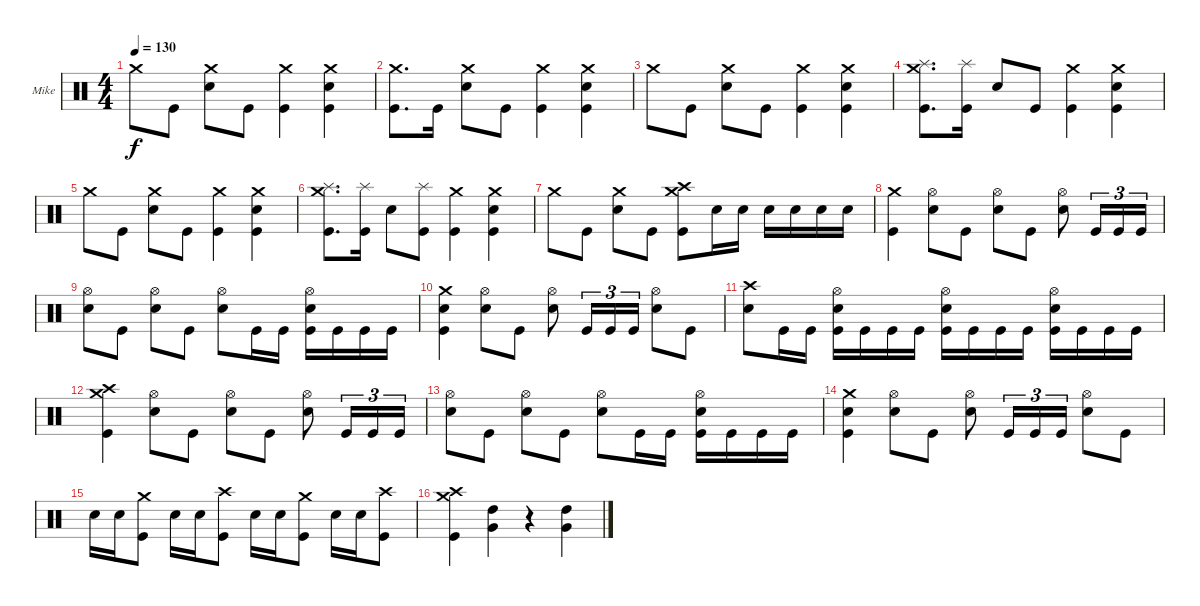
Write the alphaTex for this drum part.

\defaultSystemsLayout 4
\bracketExtendMode groupsimilarinstruments
\firstSystemTrackNameOrientation horizontal
\otherSystemsTrackNameOrientation horizontal
\track ("Mike Portnoy" "Mike") {instrument percussion}
\staff {score}
\articulation defaults
\ts (4 4)
\tempo 130
\clef neutral
\ks c "Crash medium (hit)".8{dy f} "Kick (hit)".8
("Crash medium (hit)" "Snare (hit) 2").8 "Kick (hit)".8 ("Crash medium (hit)" "Kick (hit)").4 ("Crash medium (hit)" "Snare (hit) 2" "Kick (hit)").4 |
("Crash medium (hit)" "Kick (hit)").8{d} "Kick (hit)".16 ("Crash medium (hit)" "Snare (hit) 2").8 "Kick (hit)".8 ("Crash medium (hit)" "Kick (hit)").4 ("Crash medium (hit)" "Snare (hit) 2" "Kick (hit)").4 |
"Crash medium (hit)".8 "Kick (hit)".8 ("Crash medium (hit)" "Snare (hit) 2").8 "Kick (hit)".8 ("Crash medium (hit)" "Kick (hit)").4 ("Crash medium (hit)" "Snare (hit) 2" "Kick (hit)").4 |
("Crash medium (hit)" "Splash (hit)" "Kick (hit)").8{d} ("Splash (hit)" "Kick (hit)").16 "Snare (hit) 2".8 "Kick (hit)".8 ("Crash medium (hit)" "Kick (hit)").4 ("Crash medium (hit)" "Snare (hit) 2" "Kick (hit)").4 |
"Crash medium (hit)".8 "Kick (hit)".8 ("Crash medium (hit)" "Snare (hit) 2").8 "Kick (hit)".8 ("Crash medium (hit)" "Kick (hit)").4 ("Crash medium (hit)" "Snare (hit) 2" "Kick (hit)").4 |
("Crash medium (hit)" "Splash (hit)" "Kick (hit)").8{d} ("Splash (hit)" "Kick (hit)").16 "Snare (hit) 2".8 ("Splash (hit)" "Kick (hit)").8 ("Crash medium (hit)" "Kick (hit)").4 ("Crash medium (hit)" "Snare (hit) 2" "Kick (hit)").4 |
"Crash medium (hit)".8 "Kick (hit)".8 ("Crash medium (hit)" "Snare (hit) 2").8 "Kick (hit)".8 ("Crash medium (hit)" "Crash high (hit)" "Kick (hit)").8 "Snare (hit) 2".16 "Snare (hit) 2".16 "Snare (hit) 2".16 "Snare (hit) 2".16 "Snare (hit) 2".16 "Snare (hit) 2".16 |
("Crash medium (hit)" "Kick (hit)").4 ("Hi-Hat (open)" "Snare (hit) 2").8 "Kick (hit)".8 ("Hi-Hat (open)" "Snare (hit) 2").8 "Kick (hit)".8 ("Hi-Hat (open)" "Snare (hit) 2").8 "Kick (hit)".16{tu (3 2)} "Kick (hit)".16{tu (3 2)} "Kick (hit)".16{tu (3 2)} |
("Hi-Hat (open)" "Snare (hit) 2").8 "Kick (hit)".8 ("Hi-Hat (open)" "Snare (hit) 2").8 "Kick (hit)".8 ("Hi-Hat (open)" "Snare (hit) 2").8 "Kick (hit)".16 "Kick (hit)".16 ("Hi-Hat (open)" "Snare (hit) 2" "Kick (hit)").16 "Kick (hit)".16 "Kick (hit)".16 "Kick (hit)".16 |
("Crash medium (hit)" "Snare (hit) 2" "Kick (hit)").4 ("Hi-Hat (open)" "Snare (hit) 2").8 "Kick (hit)".8 ("Hi-Hat (open)" "Snare (hit) 2").8 "Kick (hit)".16{tu (3 2)} "Kick (hit)".16{tu (3 2)} "Kick (hit)".16{tu (3 2)} ("Hi-Hat (open)" "Snare (hit) 2").8 "Kick (hit)".8 |
("Crash high (hit)" "Snare (hit) 2").8 "Kick (hit)".16 "Kick (hit)".16 ("Hi-Hat (open)" "Snare (hit) 2" "Kick (hit)").16 "Kick (hit)".16 "Kick (hit)".16 "Kick (hit)".16 ("Hi-Hat (open)" "Snare (hit) 2" "Kick (hit)").16 "Kick (hit)".16 "Kick (hit)".16 "Kick (hit)".16 ("Hi-Hat (open)" "Snare (hit) 2" "Kick (hit)").16 "Kick (hit)".16 "Kick (hit)".16 "Kick (hit)".16 |
("Crash medium (hit)" "Crash high (hit)" "Kick (hit)").4 ("Hi-Hat (open)" "Snare (hit) 2").8 "Kick (hit)".8 ("Hi-Hat (open)" "Snare (hit) 2").8 "Kick (hit)".8 ("Hi-Hat (open)" "Snare (hit) 2").8 "Kick (hit)".16{tu (3 2)} "Kick (hit)".16{tu (3 2)} "Kick (hit)".16{tu (3 2)} |
("Hi-Hat (open)" "Snare (hit) 2").8 "Kick (hit)".8 ("Hi-Hat (open)" "Snare (hit) 2").8 "Kick (hit)".8 ("Hi-Hat (open)" "Snare (hit) 2").8 "Kick (hit)".16 "Kick (hit)".16 ("Hi-Hat (open)" "Snare (hit) 2" "Kick (hit)").16 "Kick (hit)".16 "Kick (hit)".16 "Kick (hit)".16 |
("Crash medium (hit)" "Snare (hit) 2" "Kick (hit)").4 ("Hi-Hat (open)" "Snare (hit) 2").8 "Kick (hit)".8 ("Hi-Hat (open)" "Snare (hit) 2").8 "Kick (hit)".16{tu (3 2)} "Kick (hit)".16{tu (3 2)} "Kick (hit)".16{tu (3 2)} ("Hi-Hat (open)" "Snare (hit) 2").8 "Kick (hit)".8 |
"Snare (hit) 2".16 "Snare (hit) 2".16 ("Crash medium (hit)" "Kick (hit)").8 "Snare (hit) 2".16 "Snare (hit) 2".16 ("Crash high (hit)" "Kick (hit)").8 "Snare (hit) 2".16 "Snare (hit) 2".16 ("Crash medium (hit)" "Kick (hit)").8 "Snare (hit) 2".16 "Snare (hit) 2".16 ("Crash high (hit)" "Kick (hit)").8 |
("Crash medium (hit)" "Crash high (hit)" "Kick (hit)").4 ("High Tom (hit)" "Very Low Tom (hit)").4 r.4 ("High Tom (hit)" "Very Low Tom (hit)").4
